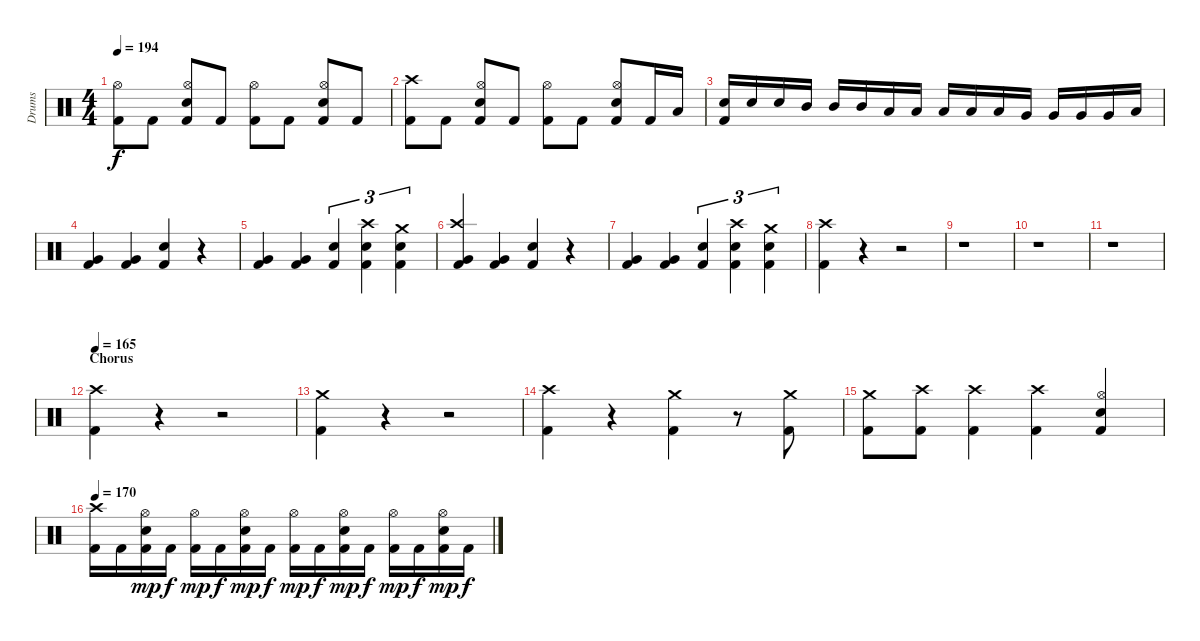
\track ("Drums" "Drums") {instrument percussion}
\staff {score}
\articulation defaults
\ts (4 4)
\tempo 194
\clef neutral
\ks c
("Kick (hit) 2" "Hi-Hat (open)").8{dy f} "Kick (hit) 2".8 ("Kick (hit) 2" "Electric Snare (hit)" "Hi-Hat (open)").8 "Kick (hit) 2".8 ("Kick (hit) 2" "Hi-Hat (open)").8 "Kick (hit) 2".8 ("Kick (hit) 2" "Electric Snare (hit)" "Hi-Hat (open)").8 "Kick (hit) 2".8 |
("Kick (hit) 2" "Crash high (hit)").8 "Kick (hit) 2".8 ("Kick (hit) 2" "Electric Snare (hit)" "Hi-Hat (open)").8 "Kick (hit) 2".8 ("Kick (hit) 2" "Hi-Hat (open)").8 "Kick (hit) 2".8 ("Kick (hit) 2" "Electric Snare (hit)" "Hi-Hat (open)").8 "Kick (hit) 2".16 "Low Tom (hit)".16 |
("Kick (hit) 2" "Electric Snare (hit)").16 "Electric Snare (hit)".16 "Electric Snare (hit)".16 "Mid Tom (hit)".16 "Mid Tom (hit)".16 "Mid Tom (hit)".16 "Low Tom (hit)".16 "Low Tom (hit)".16 "Low Tom (hit)".16 "Low Tom (hit)".16 "Low Tom (hit)".16 "Very Low Tom (hit)".16 "Very Low Tom (hit)".16 "Very Low Tom (hit)".16 "Very Low Tom (hit)".16 "Low Floor Tom (hit)".16 |
("Kick (hit) 2" "Very Low Tom (hit)").4 ("Kick (hit) 2" "Very Low Tom (hit)").4 ("Kick (hit) 2" "Electric Snare (hit)").4 r.4 |
("Kick (hit) 2" "Very Low Tom (hit)").4 ("Kick (hit) 2" "Very Low Tom (hit)").4 ("Kick (hit) 2" "Electric Snare (hit)").4{tu (3 2)} ("Kick (hit) 2" "Electric Snare (hit)" "Crash high (hit)").4{tu (3 2)} ("Kick (hit) 2" "Electric Snare (hit)" "Crash medium (hit)").4{tu (3 2)} |
("Kick (hit) 2" "Very Low Tom (hit)" "Crash high (hit)").4 ("Kick (hit) 2" "Very Low Tom (hit)").4 ("Kick (hit) 2" "Electric Snare (hit)").4 r.4 |
("Kick (hit) 2" "Very Low Tom (hit)").4 ("Kick (hit) 2" "Very Low Tom (hit)").4 ("Kick (hit) 2" "Electric Snare (hit)").4{tu (3 2)} ("Kick (hit) 2" "Electric Snare (hit)" "Crash high (hit)").4{tu (3 2)} ("Kick (hit) 2" "Electric Snare (hit)" "Crash medium (hit)").4{tu (3 2)} |
("Kick (hit) 2" "Crash high (hit)").4 r.4 r.2 |
r.1 |
r.1 |
r.1 |
\section ("" "Chorus")
\tempo 165
("Kick (hit) 2" "Crash high (hit)").4 r.4 r.2 |
("Kick (hit) 2" "Crash medium (hit)").4 r.4 r.2 |
("Kick (hit) 2" "Crash high (hit)").4 r.4 ("Kick (hit) 2" "Crash medium (hit)").4 r.8 ("Kick (hit) 2" "Crash medium (hit)").8 |
("Kick (hit) 2" "Crash medium (hit)").8 ("Kick (hit) 2" "Crash high (hit)").8 ("Kick (hit) 2" "Crash high (hit)").4 ("Kick (hit) 2" "Crash high (hit)").4 ("Kick (hit) 2" "Electric Snare (hit)" "Hi-Hat (open)").4 |
\tempo 170
("Kick (hit) 2" "Crash high (hit)").16 "Kick (hit) 2".16 ("Kick (hit) 2" "Electric Snare (hit)" "Hi-Hat (open)").16{dy mp} "Kick (hit) 2".16{dy f} ("Kick (hit) 2" "Hi-Hat (open)").16{dy mp} "Kick (hit) 2".16{dy f} ("Kick (hit) 2" "Electric Snare (hit)" "Hi-Hat (open)").16{dy mp} "Kick (hit) 2".16{dy f} ("Kick (hit) 2" "Hi-Hat (open)").16{dy mp} "Kick (hit) 2".16{dy f} ("Kick (hit) 2" "Electric Snare (hit)" "Hi-Hat (open)").16{dy mp} "Kick (hit) 2".16{dy f} ("Kick (hit) 2" "Hi-Hat (open)").16{dy mp} "Kick (hit) 2".16{dy f} ("Kick (hit) 2" "Electric Snare (hit)" "Hi-Hat (open)").16{dy mp} "Kick (hit) 2".16{dy f}
